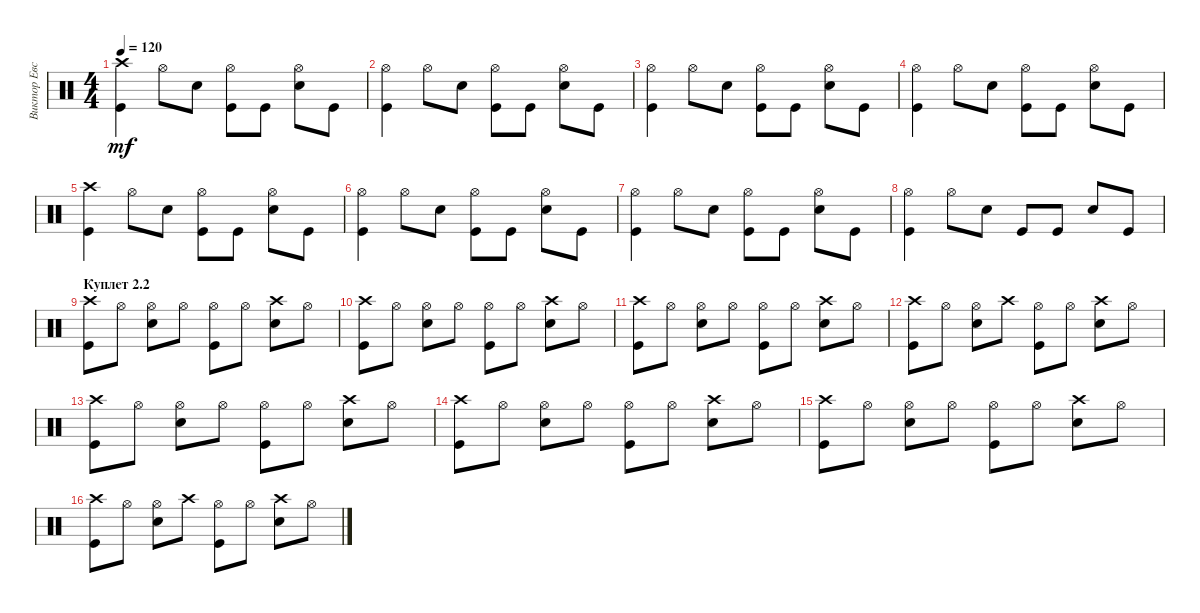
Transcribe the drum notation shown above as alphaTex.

\track ("Виктор Евстратов" "Виктор Евс") {instrument percussion}
\staff {score}
\articulation defaults
\ts (4 4)
\tempo 120
\clef neutral
\ks c
("Kick (hit)" "Crash high (hit)").4{dy mf} "Hi-Hat (open)".8 "Snare (hit) 2".8 ("Kick (hit)" "Hi-Hat (open)").8 "Kick (hit)".8 ("Snare (hit) 2" "Hi-Hat (open)").8 "Kick (hit)".8 |
("Kick (hit)" "Hi-Hat (open)").4 "Hi-Hat (open)".8 "Snare (hit) 2".8 ("Kick (hit)" "Hi-Hat (open)").8 "Kick (hit)".8 ("Snare (hit) 2" "Hi-Hat (open)").8 "Kick (hit)".8 |
("Kick (hit)" "Hi-Hat (open)").4 "Hi-Hat (open)".8 "Snare (hit) 2".8 ("Kick (hit)" "Hi-Hat (open)").8 "Kick (hit)".8 ("Snare (hit) 2" "Hi-Hat (open)").8 "Kick (hit)".8 |
("Kick (hit)" "Hi-Hat (open)").4 "Hi-Hat (open)".8 "Snare (hit) 2".8 ("Kick (hit)" "Hi-Hat (open)").8 "Kick (hit)".8 ("Snare (hit) 2" "Hi-Hat (open)").8 "Kick (hit)".8 |
("Kick (hit)" "Crash high (hit)").4 "Hi-Hat (open)".8 "Snare (hit) 2".8 ("Kick (hit)" "Hi-Hat (open)").8 "Kick (hit)".8 ("Snare (hit) 2" "Hi-Hat (open)").8 "Kick (hit)".8 |
("Kick (hit)" "Hi-Hat (open)").4 "Hi-Hat (open)".8 "Snare (hit) 2".8 ("Kick (hit)" "Hi-Hat (open)").8 "Kick (hit)".8 ("Snare (hit) 2" "Hi-Hat (open)").8 "Kick (hit)".8 |
("Kick (hit)" "Hi-Hat (open)").4 "Hi-Hat (open)".8 "Snare (hit) 2".8 ("Kick (hit)" "Hi-Hat (open)").8 "Kick (hit)".8 ("Snare (hit) 2" "Hi-Hat (open)").8 "Kick (hit)".8 |
("Kick (hit)" "Hi-Hat (open)").4 "Hi-Hat (open)".8 "Snare (hit) 2".8 "Kick (hit)".8 "Kick (hit)".8 "Snare (hit) 2".8 "Kick (hit)".8 |
\section ("" "Куплет 2.2 ")
("Kick (hit)" "Crash high (hit)").8 "Hi-Hat (open)".8 ("Snare (hit) 2" "Hi-Hat (open)").8 "Hi-Hat (open)".8 ("Kick (hit)" "Hi-Hat (open)").8 "Hi-Hat (open)".8 ("Snare (hit) 2" "Crash high (hit)").8 "Hi-Hat (open)".8 |
("Kick (hit)" "Crash high (hit)").8 "Hi-Hat (open)".8 ("Snare (hit) 2" "Hi-Hat (open)").8 "Hi-Hat (open)".8 ("Kick (hit)" "Hi-Hat (open)").8 "Hi-Hat (open)".8 ("Snare (hit) 2" "Crash high (hit)").8 "Hi-Hat (open)".8 |
("Kick (hit)" "Crash high (hit)").8 "Hi-Hat (open)".8 ("Snare (hit) 2" "Hi-Hat (open)").8 "Hi-Hat (open)".8 ("Kick (hit)" "Hi-Hat (open)").8 "Hi-Hat (open)".8 ("Snare (hit) 2" "Crash high (hit)").8 "Hi-Hat (open)".8 |
("Kick (hit)" "Crash high (hit)").8 "Hi-Hat (open)".8 ("Snare (hit) 2" "Hi-Hat (open)").8 "Crash high (hit)".8 ("Kick (hit)" "Hi-Hat (open)").8 "Hi-Hat (open)".8 ("Snare (hit) 2" "Crash high (hit)").8 "Hi-Hat (open)".8 |
("Kick (hit)" "Crash high (hit)").8 "Hi-Hat (open)".8 ("Snare (hit) 2" "Hi-Hat (open)").8 "Hi-Hat (open)".8 ("Kick (hit)" "Hi-Hat (open)").8 "Hi-Hat (open)".8 ("Snare (hit) 2" "Crash high (hit)").8 "Hi-Hat (open)".8 |
("Kick (hit)" "Crash high (hit)").8 "Hi-Hat (open)".8 ("Snare (hit) 2" "Hi-Hat (open)").8 "Hi-Hat (open)".8 ("Kick (hit)" "Hi-Hat (open)").8 "Hi-Hat (open)".8 ("Snare (hit) 2" "Crash high (hit)").8 "Hi-Hat (open)".8 |
("Kick (hit)" "Crash high (hit)").8 "Hi-Hat (open)".8 ("Snare (hit) 2" "Hi-Hat (open)").8 "Hi-Hat (open)".8 ("Kick (hit)" "Hi-Hat (open)").8 "Hi-Hat (open)".8 ("Snare (hit) 2" "Crash high (hit)").8 "Hi-Hat (open)".8 |
("Kick (hit)" "Crash high (hit)").8 "Hi-Hat (open)".8 ("Snare (hit) 2" "Hi-Hat (open)").8 "Crash high (hit)".8 ("Kick (hit)" "Hi-Hat (open)").8 "Hi-Hat (open)".8 ("Snare (hit) 2" "Crash high (hit)").8 "Hi-Hat (open)".8
